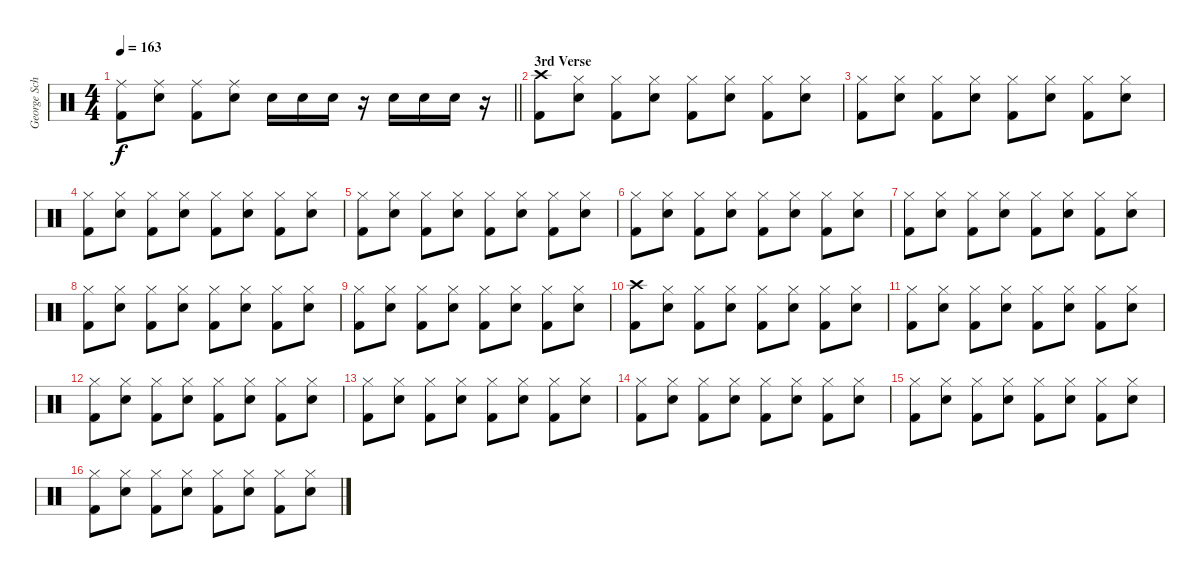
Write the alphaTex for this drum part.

\track ("George Schwindt" "George Sch") {instrument percussion}
\staff {score}
\articulation defaults
\ts (4 4)
\tempo 163
\clef neutral
\barLineRight lightlight
\ks c
("Ride (middle)" "Kick (hit) 2").8{dy f} ("Ride (middle)" "Snare (hit) 2").8 ("Ride (middle)" "Kick (hit) 2").8 ("Ride (middle)" "Snare (hit) 2").8 "Snare (hit) 2".16 "Snare (hit) 2".16 "Snare (hit) 2".16 r.16 "Snare (hit) 2".16 "Snare (hit) 2".16 "Snare (hit) 2".16 r.16 |
\section ("" "3rd Verse")
("Crash high (hit)" "Kick (hit) 2").8 ("Hi-Hat (closed)" "Snare (hit) 2").8 ("Hi-Hat (closed)" "Kick (hit) 2").8 ("Hi-Hat (closed)" "Snare (hit) 2").8 ("Hi-Hat (closed)" "Kick (hit) 2").8 ("Hi-Hat (closed)" "Snare (hit) 2").8 ("Hi-Hat (closed)" "Kick (hit) 2").8 ("Hi-Hat (closed)" "Snare (hit) 2").8 |
("Hi-Hat (closed)" "Kick (hit) 2").8 ("Hi-Hat (closed)" "Snare (hit) 2").8 ("Hi-Hat (closed)" "Kick (hit) 2").8 ("Hi-Hat (closed)" "Snare (hit) 2").8 ("Hi-Hat (closed)" "Kick (hit) 2").8 ("Hi-Hat (closed)" "Snare (hit) 2").8 ("Hi-Hat (closed)" "Kick (hit) 2").8 ("Hi-Hat (closed)" "Snare (hit) 2").8 |
("Hi-Hat (closed)" "Kick (hit) 2").8 ("Hi-Hat (closed)" "Snare (hit) 2").8 ("Hi-Hat (closed)" "Kick (hit) 2").8 ("Hi-Hat (closed)" "Snare (hit) 2").8 ("Hi-Hat (closed)" "Kick (hit) 2").8 ("Hi-Hat (closed)" "Snare (hit) 2").8 ("Hi-Hat (closed)" "Kick (hit) 2").8 ("Hi-Hat (closed)" "Snare (hit) 2").8 |
("Hi-Hat (closed)" "Kick (hit) 2").8 ("Hi-Hat (closed)" "Snare (hit) 2").8 ("Hi-Hat (closed)" "Kick (hit) 2").8 ("Hi-Hat (closed)" "Snare (hit) 2").8 ("Hi-Hat (closed)" "Kick (hit) 2").8 ("Hi-Hat (closed)" "Snare (hit) 2").8 ("Hi-Hat (closed)" "Kick (hit) 2").8 ("Hi-Hat (closed)" "Snare (hit) 2").8 |
("Hi-Hat (closed)" "Kick (hit) 2").8 ("Hi-Hat (closed)" "Snare (hit) 2").8 ("Hi-Hat (closed)" "Kick (hit) 2").8 ("Hi-Hat (closed)" "Snare (hit) 2").8 ("Hi-Hat (closed)" "Kick (hit) 2").8 ("Hi-Hat (closed)" "Snare (hit) 2").8 ("Hi-Hat (closed)" "Kick (hit) 2").8 ("Hi-Hat (closed)" "Snare (hit) 2").8 |
("Hi-Hat (closed)" "Kick (hit) 2").8 ("Hi-Hat (closed)" "Snare (hit) 2").8 ("Hi-Hat (closed)" "Kick (hit) 2").8 ("Hi-Hat (closed)" "Snare (hit) 2").8 ("Hi-Hat (closed)" "Kick (hit) 2").8 ("Hi-Hat (closed)" "Snare (hit) 2").8 ("Hi-Hat (closed)" "Kick (hit) 2").8 ("Hi-Hat (closed)" "Snare (hit) 2").8 |
("Hi-Hat (closed)" "Kick (hit) 2").8 ("Hi-Hat (closed)" "Snare (hit) 2").8 ("Hi-Hat (closed)" "Kick (hit) 2").8 ("Hi-Hat (closed)" "Snare (hit) 2").8 ("Hi-Hat (closed)" "Kick (hit) 2").8 ("Hi-Hat (closed)" "Snare (hit) 2").8 ("Hi-Hat (closed)" "Kick (hit) 2").8 ("Hi-Hat (closed)" "Snare (hit) 2").8 |
("Hi-Hat (closed)" "Kick (hit) 2").8 ("Hi-Hat (closed)" "Snare (hit) 2").8 ("Hi-Hat (closed)" "Kick (hit) 2").8 ("Hi-Hat (closed)" "Snare (hit) 2").8 ("Hi-Hat (closed)" "Kick (hit) 2").8 ("Hi-Hat (closed)" "Snare (hit) 2").8 ("Hi-Hat (closed)" "Kick (hit) 2").8 ("Hi-Hat (closed)" "Snare (hit) 2").8 |
("Crash high (hit)" "Kick (hit) 2").8 ("Hi-Hat (closed)" "Snare (hit) 2").8 ("Hi-Hat (closed)" "Kick (hit) 2").8 ("Hi-Hat (closed)" "Snare (hit) 2").8 ("Hi-Hat (closed)" "Kick (hit) 2").8 ("Hi-Hat (closed)" "Snare (hit) 2").8 ("Hi-Hat (closed)" "Kick (hit) 2").8 ("Hi-Hat (closed)" "Snare (hit) 2").8 |
("Hi-Hat (closed)" "Kick (hit) 2").8 ("Hi-Hat (closed)" "Snare (hit) 2").8 ("Hi-Hat (closed)" "Kick (hit) 2").8 ("Hi-Hat (closed)" "Snare (hit) 2").8 ("Hi-Hat (closed)" "Kick (hit) 2").8 ("Hi-Hat (closed)" "Snare (hit) 2").8 ("Hi-Hat (closed)" "Kick (hit) 2").8 ("Hi-Hat (closed)" "Snare (hit) 2").8 |
("Hi-Hat (closed)" "Kick (hit) 2").8 ("Hi-Hat (closed)" "Snare (hit) 2").8 ("Hi-Hat (closed)" "Kick (hit) 2").8 ("Hi-Hat (closed)" "Snare (hit) 2").8 ("Hi-Hat (closed)" "Kick (hit) 2").8 ("Hi-Hat (closed)" "Snare (hit) 2").8 ("Hi-Hat (closed)" "Kick (hit) 2").8 ("Hi-Hat (closed)" "Snare (hit) 2").8 |
("Hi-Hat (closed)" "Kick (hit) 2").8 ("Hi-Hat (closed)" "Snare (hit) 2").8 ("Hi-Hat (closed)" "Kick (hit) 2").8 ("Hi-Hat (closed)" "Snare (hit) 2").8 ("Hi-Hat (closed)" "Kick (hit) 2").8 ("Hi-Hat (closed)" "Snare (hit) 2").8 ("Hi-Hat (closed)" "Kick (hit) 2").8 ("Hi-Hat (closed)" "Snare (hit) 2").8 |
("Hi-Hat (closed)" "Kick (hit) 2").8 ("Hi-Hat (closed)" "Snare (hit) 2").8 ("Hi-Hat (closed)" "Kick (hit) 2").8 ("Hi-Hat (closed)" "Snare (hit) 2").8 ("Hi-Hat (closed)" "Kick (hit) 2").8 ("Hi-Hat (closed)" "Snare (hit) 2").8 ("Hi-Hat (closed)" "Kick (hit) 2").8 ("Hi-Hat (closed)" "Snare (hit) 2").8 |
("Hi-Hat (closed)" "Kick (hit) 2").8 ("Hi-Hat (closed)" "Snare (hit) 2").8 ("Hi-Hat (closed)" "Kick (hit) 2").8 ("Hi-Hat (closed)" "Snare (hit) 2").8 ("Hi-Hat (closed)" "Kick (hit) 2").8 ("Hi-Hat (closed)" "Snare (hit) 2").8 ("Hi-Hat (closed)" "Kick (hit) 2").8 ("Hi-Hat (closed)" "Snare (hit) 2").8 |
("Hi-Hat (closed)" "Kick (hit) 2").8 ("Hi-Hat (closed)" "Snare (hit) 2").8 ("Hi-Hat (closed)" "Kick (hit) 2").8 ("Hi-Hat (closed)" "Snare (hit) 2").8 ("Hi-Hat (closed)" "Kick (hit) 2").8 ("Hi-Hat (closed)" "Snare (hit) 2").8 ("Hi-Hat (closed)" "Kick (hit) 2").8 ("Hi-Hat (closed)" "Snare (hit) 2").8
